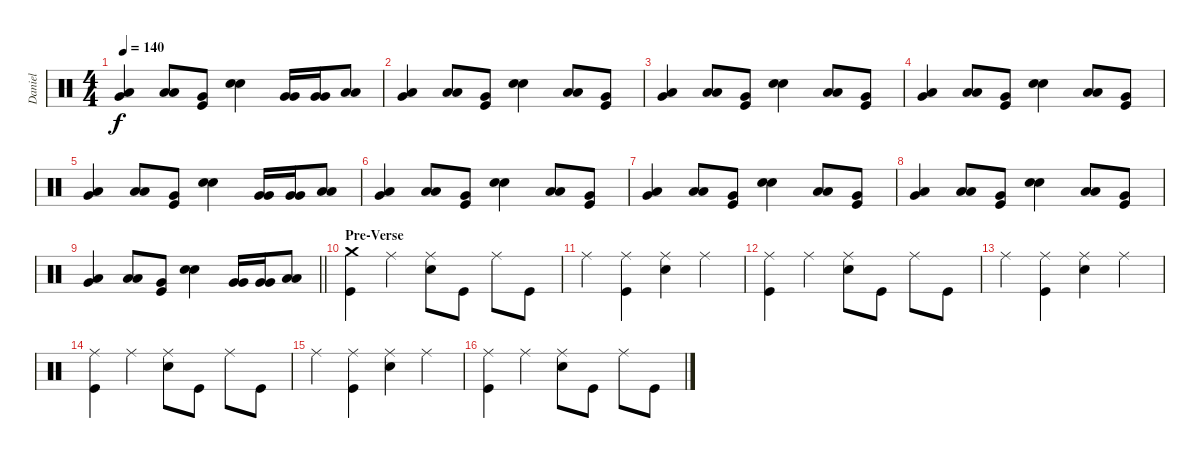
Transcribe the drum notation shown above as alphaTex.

\track ("Daniel" "Daniel") {instrument percussion}
\staff {score}
\articulation defaults
\ts (4 4)
\tempo 140
\clef neutral
\ks c
("Very Low Tom (hit)" "Low Floor Tom (hit)").4{dy f} ("Low Tom (hit)" "Low Tom (hit)").8 ("Kick (hit)" "Very Low Tom (hit)").8 ("Electric Snare (hit)" "Electric Snare (hit)").4 ("Very Low Tom (hit)" "Very Low Tom (hit)").16 ("Very Low Tom (hit)" "Very Low Tom (hit)").16 ("Low Tom (hit)" "Low Tom (hit)").8 |
("Very Low Tom (hit)" "Low Floor Tom (hit)").4 ("Low Tom (hit)" "Low Tom (hit)").8 ("Kick (hit)" "Very Low Tom (hit)").8 ("Electric Snare (hit)" "Electric Snare (hit)").4 ("Low Tom (hit)" "Low Tom (hit)").8 ("Kick (hit)" "Very Low Tom (hit)").8 |
("Very Low Tom (hit)" "Low Floor Tom (hit)").4 ("Low Tom (hit)" "Low Tom (hit)").8 ("Kick (hit)" "Very Low Tom (hit)").8 ("Electric Snare (hit)" "Electric Snare (hit)").4 ("Low Tom (hit)" "Low Tom (hit)").8 ("Kick (hit)" "Very Low Tom (hit)").8 |
("Very Low Tom (hit)" "Low Floor Tom (hit)").4 ("Low Tom (hit)" "Low Tom (hit)").8 ("Kick (hit)" "Very Low Tom (hit)").8 ("Electric Snare (hit)" "Electric Snare (hit)").4 ("Low Tom (hit)" "Low Tom (hit)").8 ("Kick (hit)" "Very Low Tom (hit)").8 |
("Very Low Tom (hit)" "Low Floor Tom (hit)").4 ("Low Tom (hit)" "Low Tom (hit)").8 ("Kick (hit)" "Very Low Tom (hit)").8 ("Electric Snare (hit)" "Electric Snare (hit)").4 ("Very Low Tom (hit)" "Very Low Tom (hit)").16 ("Very Low Tom (hit)" "Very Low Tom (hit)").16 ("Low Tom (hit)" "Low Tom (hit)").8 |
("Very Low Tom (hit)" "Low Floor Tom (hit)").4 ("Low Tom (hit)" "Low Tom (hit)").8 ("Kick (hit)" "Very Low Tom (hit)").8 ("Electric Snare (hit)" "Electric Snare (hit)").4 ("Low Tom (hit)" "Low Tom (hit)").8 ("Kick (hit)" "Very Low Tom (hit)").8 |
("Very Low Tom (hit)" "Low Floor Tom (hit)").4 ("Low Tom (hit)" "Low Tom (hit)").8 ("Kick (hit)" "Very Low Tom (hit)").8 ("Electric Snare (hit)" "Electric Snare (hit)").4 ("Low Tom (hit)" "Low Tom (hit)").8 ("Kick (hit)" "Very Low Tom (hit)").8 |
("Very Low Tom (hit)" "Low Floor Tom (hit)").4 ("Low Tom (hit)" "Low Tom (hit)").8 ("Kick (hit)" "Very Low Tom (hit)").8 ("Electric Snare (hit)" "Electric Snare (hit)").4 ("Low Tom (hit)" "Low Tom (hit)").8 ("Kick (hit)" "Very Low Tom (hit)").8 |
\barLineRight lightlight
("Very Low Tom (hit)" "Low Floor Tom (hit)").4 ("Low Tom (hit)" "Low Tom (hit)").8 ("Kick (hit)" "Very Low Tom (hit)").8 ("Electric Snare (hit)" "Electric Snare (hit)").4 ("Very Low Tom (hit)" "Very Low Tom (hit)").16 ("Very Low Tom (hit)" "Very Low Tom (hit)").16 ("Low Tom (hit)" "Low Tom (hit)").8 |
\section ("" "Pre-Verse")
("Crash medium (hit)" "Kick (hit)").4 "Ride (middle)".4 ("Ride (middle)" "Electric Snare (hit)").8 "Kick (hit)".8 "Ride (middle)".8 "Kick (hit)".8 |
"Ride (middle)".4 ("Ride (middle)" "Kick (hit)").4 ("Ride (middle)" "Electric Snare (hit)").4 "Ride (middle)".4 |
("Ride (middle)" "Kick (hit)").4 "Ride (middle)".4 ("Ride (middle)" "Electric Snare (hit)").8 "Kick (hit)".8 "Ride (middle)".8 "Kick (hit)".8 |
"Ride (middle)".4 ("Ride (middle)" "Kick (hit)").4 ("Ride (middle)" "Electric Snare (hit)").4 "Ride (middle)".4 |
("Ride (middle)" "Kick (hit)").4 "Ride (middle)".4 ("Ride (middle)" "Electric Snare (hit)").8 "Kick (hit)".8 "Ride (middle)".8 "Kick (hit)".8 |
"Ride (middle)".4 ("Ride (middle)" "Kick (hit)").4 ("Ride (middle)" "Electric Snare (hit)").4 "Ride (middle)".4 |
("Ride (middle)" "Kick (hit)").4 "Ride (middle)".4 ("Ride (middle)" "Electric Snare (hit)").8 "Kick (hit)".8 "Ride (middle)".8 "Kick (hit)".8
